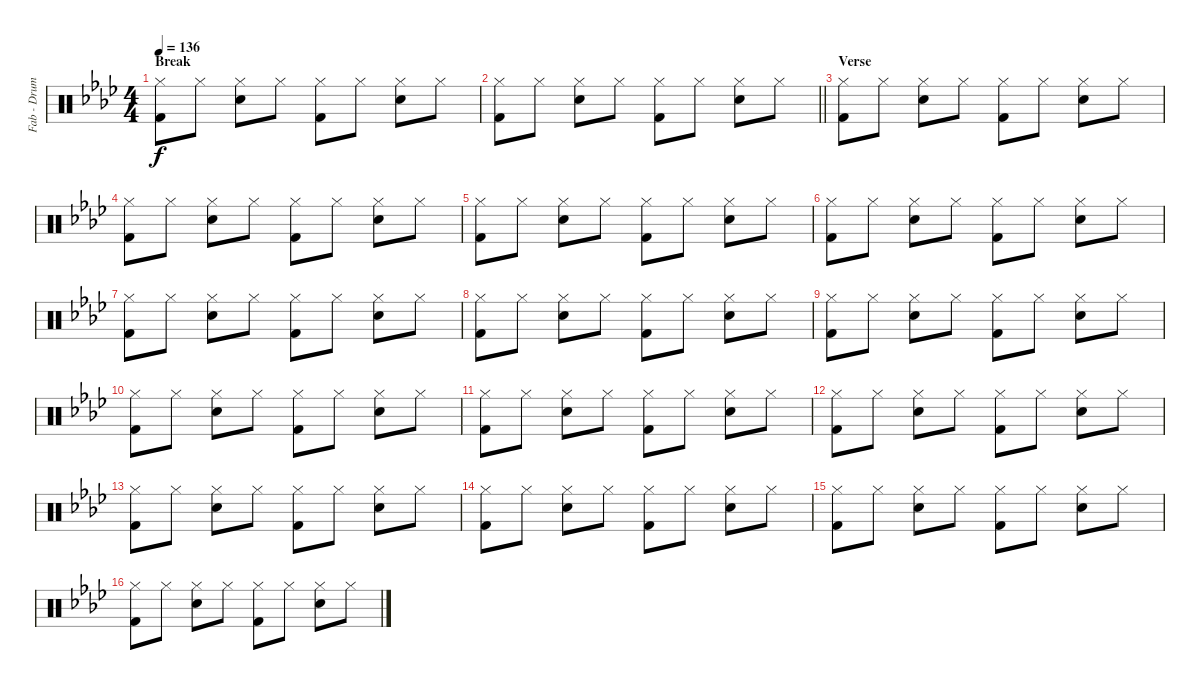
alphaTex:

\track ("Fab - Drums MIDI" "Fab - Drum") {instrument percussion}
\staff {score}
\articulation defaults
\ts (4 4)
\section ("" "Break")
\tempo 136
\clef neutral
\ks ab
("Hi-Hat (closed)" "Kick (hit) 2").8{dy f} "Hi-Hat (closed)".8 ("Hi-Hat (closed)" "Snare (hit) 2").8 "Hi-Hat (closed)".8 ("Hi-Hat (closed)" "Kick (hit) 2").8 "Hi-Hat (closed)".8 ("Hi-Hat (closed)" "Snare (hit) 2").8 "Hi-Hat (closed)".8 |
\barLineRight lightlight
("Hi-Hat (closed)" "Kick (hit) 2").8 "Hi-Hat (closed)".8 ("Hi-Hat (closed)" "Snare (hit) 2").8 "Hi-Hat (closed)".8 ("Hi-Hat (closed)" "Kick (hit) 2").8 "Hi-Hat (closed)".8 ("Hi-Hat (closed)" "Snare (hit) 2").8 "Hi-Hat (closed)".8 |
\section ("" "Verse")
("Hi-Hat (closed)" "Kick (hit) 2").8 "Hi-Hat (closed)".8 ("Hi-Hat (closed)" "Snare (hit) 2").8 "Hi-Hat (closed)".8 ("Hi-Hat (closed)" "Kick (hit) 2").8 "Hi-Hat (closed)".8 ("Hi-Hat (closed)" "Snare (hit) 2").8 "Hi-Hat (closed)".8 |
("Hi-Hat (closed)" "Kick (hit) 2").8 "Hi-Hat (closed)".8 ("Hi-Hat (closed)" "Snare (hit) 2").8 "Hi-Hat (closed)".8 ("Hi-Hat (closed)" "Kick (hit) 2").8 "Hi-Hat (closed)".8 ("Hi-Hat (closed)" "Snare (hit) 2").8 "Hi-Hat (closed)".8 |
("Hi-Hat (closed)" "Kick (hit) 2").8 "Hi-Hat (closed)".8 ("Hi-Hat (closed)" "Snare (hit) 2").8 "Hi-Hat (closed)".8 ("Hi-Hat (closed)" "Kick (hit) 2").8 "Hi-Hat (closed)".8 ("Hi-Hat (closed)" "Snare (hit) 2").8 "Hi-Hat (closed)".8 |
("Hi-Hat (closed)" "Kick (hit) 2").8 "Hi-Hat (closed)".8 ("Hi-Hat (closed)" "Snare (hit) 2").8 "Hi-Hat (closed)".8 ("Hi-Hat (closed)" "Kick (hit) 2").8 "Hi-Hat (closed)".8 ("Hi-Hat (closed)" "Snare (hit) 2").8 "Hi-Hat (closed)".8 |
("Hi-Hat (closed)" "Kick (hit) 2").8 "Hi-Hat (closed)".8 ("Hi-Hat (closed)" "Snare (hit) 2").8 "Hi-Hat (closed)".8 ("Hi-Hat (closed)" "Kick (hit) 2").8 "Hi-Hat (closed)".8 ("Hi-Hat (closed)" "Snare (hit) 2").8 "Hi-Hat (closed)".8 |
("Hi-Hat (closed)" "Kick (hit) 2").8 "Hi-Hat (closed)".8 ("Hi-Hat (closed)" "Snare (hit) 2").8 "Hi-Hat (closed)".8 ("Hi-Hat (closed)" "Kick (hit) 2").8 "Hi-Hat (closed)".8 ("Hi-Hat (closed)" "Snare (hit) 2").8 "Hi-Hat (closed)".8 |
("Hi-Hat (closed)" "Kick (hit) 2").8 "Hi-Hat (closed)".8 ("Hi-Hat (closed)" "Snare (hit) 2").8 "Hi-Hat (closed)".8 ("Hi-Hat (closed)" "Kick (hit) 2").8 "Hi-Hat (closed)".8 ("Hi-Hat (closed)" "Snare (hit) 2").8 "Hi-Hat (closed)".8 |
("Hi-Hat (closed)" "Kick (hit) 2").8 "Hi-Hat (closed)".8 ("Hi-Hat (closed)" "Snare (hit) 2").8 "Hi-Hat (closed)".8 ("Hi-Hat (closed)" "Kick (hit) 2").8 "Hi-Hat (closed)".8 ("Hi-Hat (closed)" "Snare (hit) 2").8 "Hi-Hat (closed)".8 |
("Hi-Hat (closed)" "Kick (hit) 2").8 "Hi-Hat (closed)".8 ("Hi-Hat (closed)" "Snare (hit) 2").8 "Hi-Hat (closed)".8 ("Hi-Hat (closed)" "Kick (hit) 2").8 "Hi-Hat (closed)".8 ("Hi-Hat (closed)" "Snare (hit) 2").8 "Hi-Hat (closed)".8 |
("Hi-Hat (closed)" "Kick (hit) 2").8 "Hi-Hat (closed)".8 ("Hi-Hat (closed)" "Snare (hit) 2").8 "Hi-Hat (closed)".8 ("Hi-Hat (closed)" "Kick (hit) 2").8 "Hi-Hat (closed)".8 ("Hi-Hat (closed)" "Snare (hit) 2").8 "Hi-Hat (closed)".8 |
("Hi-Hat (closed)" "Kick (hit) 2").8 "Hi-Hat (closed)".8 ("Hi-Hat (closed)" "Snare (hit) 2").8 "Hi-Hat (closed)".8 ("Hi-Hat (closed)" "Kick (hit) 2").8 "Hi-Hat (closed)".8 ("Hi-Hat (closed)" "Snare (hit) 2").8 "Hi-Hat (closed)".8 |
("Hi-Hat (closed)" "Kick (hit) 2").8 "Hi-Hat (closed)".8 ("Hi-Hat (closed)" "Snare (hit) 2").8 "Hi-Hat (closed)".8 ("Hi-Hat (closed)" "Kick (hit) 2").8 "Hi-Hat (closed)".8 ("Hi-Hat (closed)" "Snare (hit) 2").8 "Hi-Hat (closed)".8 |
("Hi-Hat (closed)" "Kick (hit) 2").8 "Hi-Hat (closed)".8 ("Hi-Hat (closed)" "Snare (hit) 2").8 "Hi-Hat (closed)".8 ("Hi-Hat (closed)" "Kick (hit) 2").8 "Hi-Hat (closed)".8 ("Hi-Hat (closed)" "Snare (hit) 2").8 "Hi-Hat (closed)".8 |
("Hi-Hat (closed)" "Kick (hit) 2").8 "Hi-Hat (closed)".8 ("Hi-Hat (closed)" "Snare (hit) 2").8 "Hi-Hat (closed)".8 ("Hi-Hat (closed)" "Kick (hit) 2").8 "Hi-Hat (closed)".8 ("Hi-Hat (closed)" "Snare (hit) 2").8 "Hi-Hat (closed)".8
